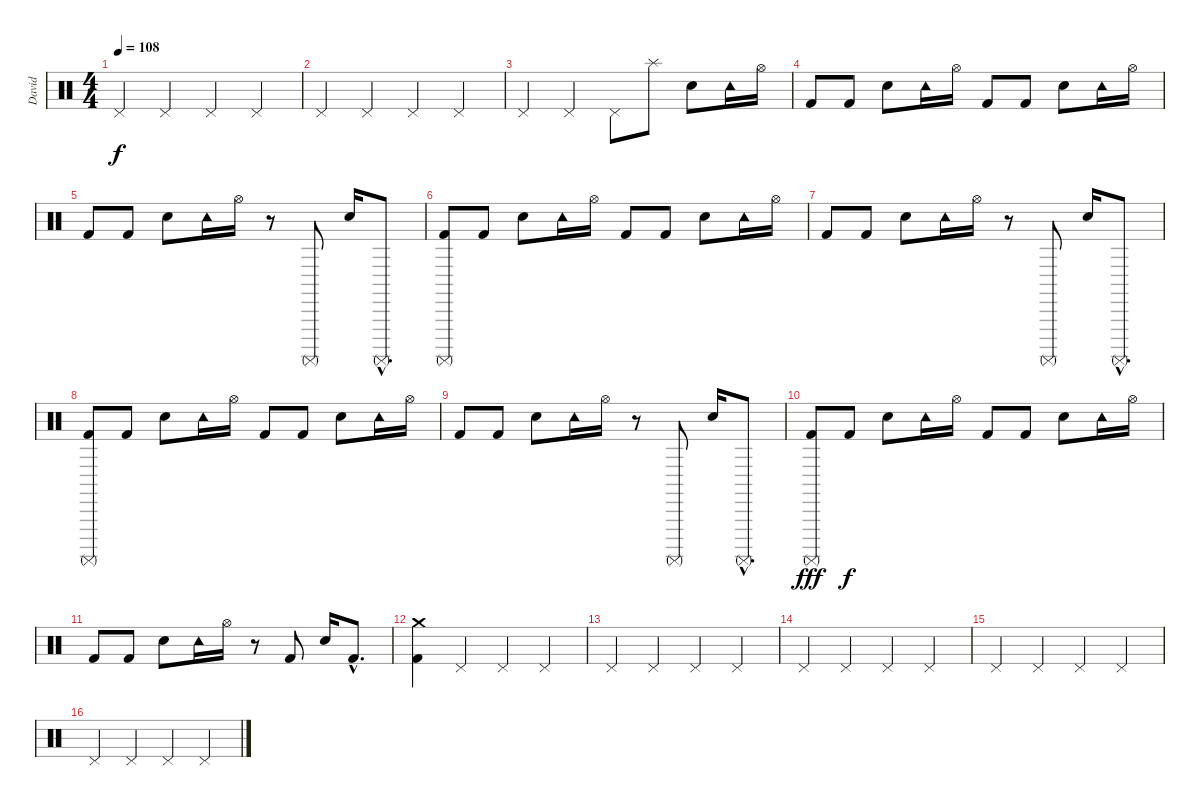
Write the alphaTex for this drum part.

\track ("David" "David") {instrument percussion}
\staff {score}
\articulation defaults
\ts (4 4)
\tempo 108
\clef neutral
\ks c "Pedal Hi-Hat (hit)".4{dy f} "Pedal Hi-Hat (hit)".4 "Pedal Hi-Hat (hit)".4 "Pedal Hi-Hat (hit)".4
|
"Pedal Hi-Hat (hit)".4 "Pedal Hi-Hat (hit)".4 "Pedal Hi-Hat (hit)".4 "Pedal Hi-Hat (hit)".4 |
"Pedal Hi-Hat (hit)".4 "Pedal Hi-Hat (hit)".4 "Pedal Hi-Hat (hit)".8 "Splash (hit)".8 "Snare (hit) 2".8 "Tambourine (hit)".16 "Hi-Hat (open)".16 |
"Kick (hit) 2".8 "Kick (hit) 2".8 "Snare (hit) 2".8 "Tambourine (hit)".16 "Hi-Hat (open)".16 "Kick (hit) 2".8 "Kick (hit) 2".8 "Snare (hit) 2".8 "Tambourine (hit)".16 "Hi-Hat (open)".16 |
"Kick (hit) 2".8 "Kick (hit) 2".8 "Snare (hit) 2".8 "Tambourine (hit)".16 "Hi-Hat (open)".16 r.8 "Surdo (mute)".8 "Snare (hit) 2".16 "Surdo (mute)"{hac}.8{d} |
("Surdo (mute)" "Kick (hit) 2").8 "Kick (hit) 2".8 "Snare (hit) 2".8 "Tambourine (hit)".16 "Hi-Hat (open)".16 "Kick (hit) 2".8 "Kick (hit) 2".8 "Snare (hit) 2".8 "Tambourine (hit)".16 "Hi-Hat (open)".16 |
"Kick (hit) 2".8 "Kick (hit) 2".8 "Snare (hit) 2".8 "Tambourine (hit)".16 "Hi-Hat (open)".16 r.8 "Surdo (mute)".8 "Snare (hit) 2".16 "Surdo (mute)"{hac}.8{d} |
("Surdo (mute)" "Kick (hit) 2").8 "Kick (hit) 2".8 "Snare (hit) 2".8 "Tambourine (hit)".16 "Hi-Hat (open)".16 "Kick (hit) 2".8 "Kick (hit) 2".8 "Snare (hit) 2".8 "Tambourine (hit)".16 "Hi-Hat (open)".16 |
"Kick (hit) 2".8 "Kick (hit) 2".8 "Snare (hit) 2".8 "Tambourine (hit)".16 "Hi-Hat (open)".16 r.8 "Surdo (mute)".8 "Snare (hit) 2".16 "Surdo (mute)"{hac}.8{d} |
("Surdo (mute)" "Kick (hit) 2").8{dy fff} "Kick (hit) 2".8{dy f} "Snare (hit) 2".8 "Tambourine (hit)".16 "Hi-Hat (open)".16 "Kick (hit) 2".8 "Kick (hit) 2".8 "Snare (hit) 2".8 "Tambourine (hit)".16 "Hi-Hat (open)".16 |
"Kick (hit) 2".8 "Kick (hit) 2".8 "Snare (hit) 2".8 "Tambourine (hit)".16 "Hi-Hat (open)".16 r.8 "Kick (hit) 2".8 "Snare (hit) 2".16 "Kick (hit) 2"{hac}.8{d} |
("Crash medium (hit)" "Kick (hit) 2").4 "Pedal Hi-Hat (hit)".4 "Pedal Hi-Hat (hit)".4 "Pedal Hi-Hat (hit)".4 |
"Pedal Hi-Hat (hit)".4 "Pedal Hi-Hat (hit)".4 "Pedal Hi-Hat (hit)".4 "Pedal Hi-Hat (hit)".4 |
"Pedal Hi-Hat (hit)".4 "Pedal Hi-Hat (hit)".4 "Pedal Hi-Hat (hit)".4 "Pedal Hi-Hat (hit)".4 |
"Pedal Hi-Hat (hit)".4 "Pedal Hi-Hat (hit)".4 "Pedal Hi-Hat (hit)".4 "Pedal Hi-Hat (hit)".4 |
"Pedal Hi-Hat (hit)".4 "Pedal Hi-Hat (hit)".4 "Pedal Hi-Hat (hit)".4 "Pedal Hi-Hat (hit)".4
